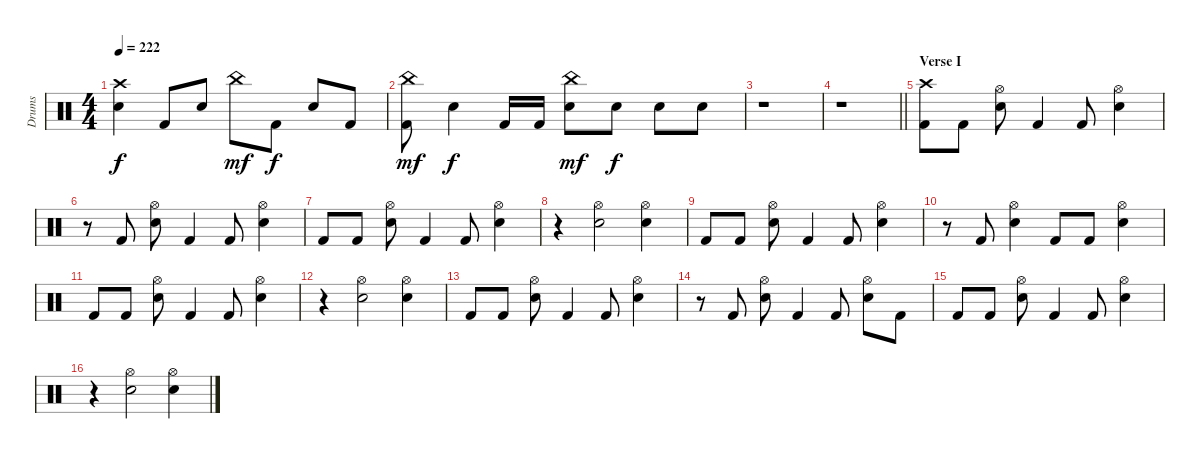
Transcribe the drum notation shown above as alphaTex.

\track ("Drums" "Drums") {instrument percussion}
\staff {score}
\articulation defaults
\ts (4 4)
\tempo 222
\clef neutral
\ks c
("Crash high (hit)" "Snare (hit) 2").4{dy f} "Kick (hit) 2".8 "Snare (hit) 2".8 "China (hit)".8{dy mf} "Kick (hit) 2".8{dy f} "Snare (hit) 2".8 "Kick (hit) 2".8 |
("China (hit)" "Kick (hit) 2").8{dy mf} "Snare (hit) 2".4{dy f} "Kick (hit) 2".16 "Kick (hit) 2".16 ("China (hit)" "Snare (hit) 2").8{dy mf} "Snare (hit) 2".8{dy f} "Snare (hit) 2".8 "Snare (hit) 2".8 |
r.1 |
\barLineRight lightlight
r.1 |
\section ("" "Verse I")
("Crash high (hit)" "Kick (hit) 2").8 "Kick (hit) 2".8 ("Hi-Hat (open)" "Snare (hit) 2").8 "Kick (hit) 2".4 "Kick (hit) 2".8 ("Hi-Hat (open)" "Snare (hit) 2").4 |
r.8 "Kick (hit) 2".8 ("Hi-Hat (open)" "Snare (hit) 2").8 "Kick (hit) 2".4 "Kick (hit) 2".8 ("Hi-Hat (open)" "Snare (hit) 2").4 |
"Kick (hit) 2".8 "Kick (hit) 2".8 ("Hi-Hat (open)" "Snare (hit) 2").8 "Kick (hit) 2".4 "Kick (hit) 2".8 ("Hi-Hat (open)" "Snare (hit) 2").4 |
r.4 ("Hi-Hat (open)" "Snare (hit) 2").2 ("Hi-Hat (open)" "Snare (hit) 2").4 |
"Kick (hit) 2".8 "Kick (hit) 2".8 ("Hi-Hat (open)" "Snare (hit) 2").8 "Kick (hit) 2".4 "Kick (hit) 2".8 ("Hi-Hat (open)" "Snare (hit) 2").4 |
r.8 "Kick (hit) 2".8 ("Hi-Hat (open)" "Snare (hit) 2").4 "Kick (hit) 2".8 "Kick (hit) 2".8 ("Hi-Hat (open)" "Snare (hit) 2").4 |
"Kick (hit) 2".8 "Kick (hit) 2".8 ("Hi-Hat (open)" "Snare (hit) 2").8 "Kick (hit) 2".4 "Kick (hit) 2".8 ("Hi-Hat (open)" "Snare (hit) 2").4 |
r.4 ("Hi-Hat (open)" "Snare (hit) 2").2 ("Hi-Hat (open)" "Snare (hit) 2").4 |
"Kick (hit) 2".8 "Kick (hit) 2".8 ("Hi-Hat (open)" "Snare (hit) 2").8 "Kick (hit) 2".4 "Kick (hit) 2".8 ("Hi-Hat (open)" "Snare (hit) 2").4 |
r.8 "Kick (hit) 2".8 ("Hi-Hat (open)" "Snare (hit) 2").8 "Kick (hit) 2".4 "Kick (hit) 2".8 ("Hi-Hat (open)" "Snare (hit) 2").8 "Kick (hit) 2".8 |
"Kick (hit) 2".8 "Kick (hit) 2".8 ("Hi-Hat (open)" "Snare (hit) 2").8 "Kick (hit) 2".4 "Kick (hit) 2".8 ("Hi-Hat (open)" "Snare (hit) 2").4 |
r.4 ("Hi-Hat (open)" "Snare (hit) 2").2 ("Hi-Hat (open)" "Snare (hit) 2").4
